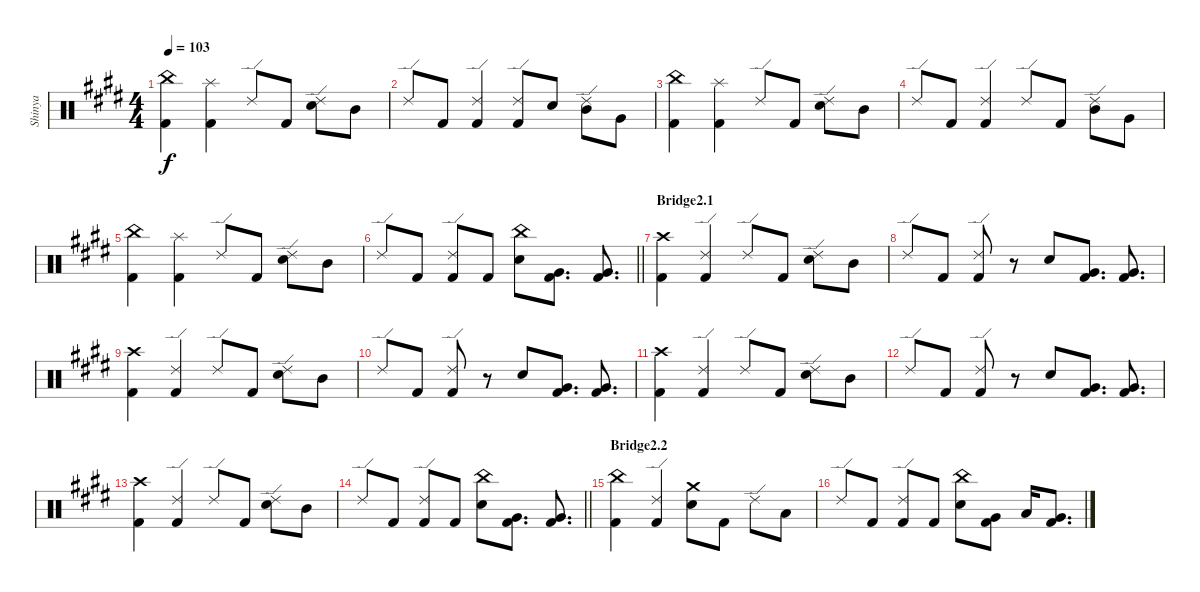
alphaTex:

\track ("Shinya" "Shinya") {instrument percussion}
\staff {score}
\articulation defaults
\ts (4 4)
\tempo 103
\clef neutral
\ks c#minor
("China (hit)" "Kick (hit) 2").4{dy f} ("Splash (hit)" "Kick (hit) 2").4 "Ride (edge) 2".8 "Kick (hit) 2".8 ("Ride (edge) 2" "Snare (hit) 2").8 "Mid Tom (hit)".8 |
"Ride (edge) 2".8 "Kick (hit) 2".8 ("Ride (edge) 2" "Kick (hit) 2").4 ("Ride (edge) 2" "Kick (hit) 2").8 "Snare (hit) 2".8 ("Ride (edge) 2" "Mid Tom (hit)").8 "Very Low Tom (hit)".8 |
("China (hit)" "Kick (hit) 2").4 ("Splash (hit)" "Kick (hit) 2").4 "Ride (edge) 2".8 "Kick (hit) 2".8 ("Ride (edge) 2" "Snare (hit) 2").8 "Mid Tom (hit)".8 |
"Ride (edge) 2".8 "Kick (hit) 2".8 ("Ride (edge) 2" "Kick (hit) 2").4 "Ride (edge) 2".8 "Kick (hit) 2".8 ("Ride (edge) 2" "Mid Tom (hit)").8 "Very Low Tom (hit)".8 |
("China (hit)" "Kick (hit) 2").4 ("Splash (hit)" "Kick (hit) 2").4 "Ride (edge) 2".8 "Kick (hit) 2".8 ("Ride (edge) 2" "Snare (hit) 2").8 "Mid Tom (hit)".8 |
\barLineRight lightlight "Ride (edge) 2".8 "Kick (hit) 2".8
("Ride (edge) 2" "Kick (hit) 2").8 "Kick (hit) 2".8 ("China (hit)" "Snare (hit) 2").8 ("Very Low Tom (hit)" "Kick (hit) 2").8{d} ("Very Low Tom (hit)" "Kick (hit) 2").8{d} |
\section ("" "Bridge2.1")
("Crash high (hit)" "Kick (hit) 2").4 ("Ride (edge) 2" "Kick (hit) 2").4 "Ride (edge) 2".8 "Kick (hit) 2".8 ("Ride (edge) 2" "Snare (hit) 2").8 "Mid Tom (hit)".8 |
"Ride (edge) 2".8 "Kick (hit) 2".8 ("Ride (edge) 2" "Kick (hit) 2").8 r.8 "Snare (hit) 2".8 ("Very Low Tom (hit)" "Kick (hit) 2").8{d} ("Very Low Tom (hit)" "Kick (hit) 2").8{d} |
("Crash high (hit)" "Kick (hit) 2").4 ("Ride (edge) 2" "Kick (hit) 2").4 "Ride (edge) 2".8 "Kick (hit) 2".8 ("Ride (edge) 2" "Snare (hit) 2").8 "Mid Tom (hit)".8 |
"Ride (edge) 2".8 "Kick (hit) 2".8 ("Ride (edge) 2" "Kick (hit) 2").8 r.8 "Snare (hit) 2".8 ("Very Low Tom (hit)" "Kick (hit) 2").8{d} ("Very Low Tom (hit)" "Kick (hit) 2").8{d} |
("Crash high (hit)" "Kick (hit) 2").4 ("Ride (edge) 2" "Kick (hit) 2").4 "Ride (edge) 2".8 "Kick (hit) 2".8 ("Ride (edge) 2" "Snare (hit) 2").8 "Mid Tom (hit)".8 |
"Ride (edge) 2".8 "Kick (hit) 2".8 ("Ride (edge) 2" "Kick (hit) 2").8 r.8 "Snare (hit) 2".8 ("Very Low Tom (hit)" "Kick (hit) 2").8{d} ("Very Low Tom (hit)" "Kick (hit) 2").8{d} |
("Crash high (hit)" "Kick (hit) 2").4 ("Ride (edge) 2" "Kick (hit) 2").4 "Ride (edge) 2".8 "Kick (hit) 2".8 ("Ride (edge) 2" "Snare (hit) 2").8 "Mid Tom (hit)".8 |
\barLineRight lightlight "Ride (edge) 2".8 "Kick (hit) 2".8
("Ride (edge) 2" "Kick (hit) 2").8 "Kick (hit) 2".8 ("China (hit)" "Snare (hit) 2").8 ("Very Low Tom (hit)" "Kick (hit) 2").8{d} ("Very Low Tom (hit)" "Kick (hit) 2").8{d} |
\section ("" "Bridge2.2")
("China (hit)" "Kick (hit) 2").4 ("Ride (edge) 2" "Kick (hit) 2").4 ("Crash medium (hit)" "Snare (hit) 2").8 "Kick (hit) 2".8 "Ride (edge) 2".8 "Low Tom (hit)".8 |
"Ride (edge) 2".8 "Kick (hit) 2".8 ("Ride (edge) 2" "Kick (hit) 2").8 "Kick (hit) 2".8 ("China (hit)" "Snare (hit) 2").8 ("Very Low Tom (hit)" "Kick (hit) 2").8 "Low Tom (hit)".16 ("Very Low Tom (hit)" "Kick (hit) 2").8{d}
